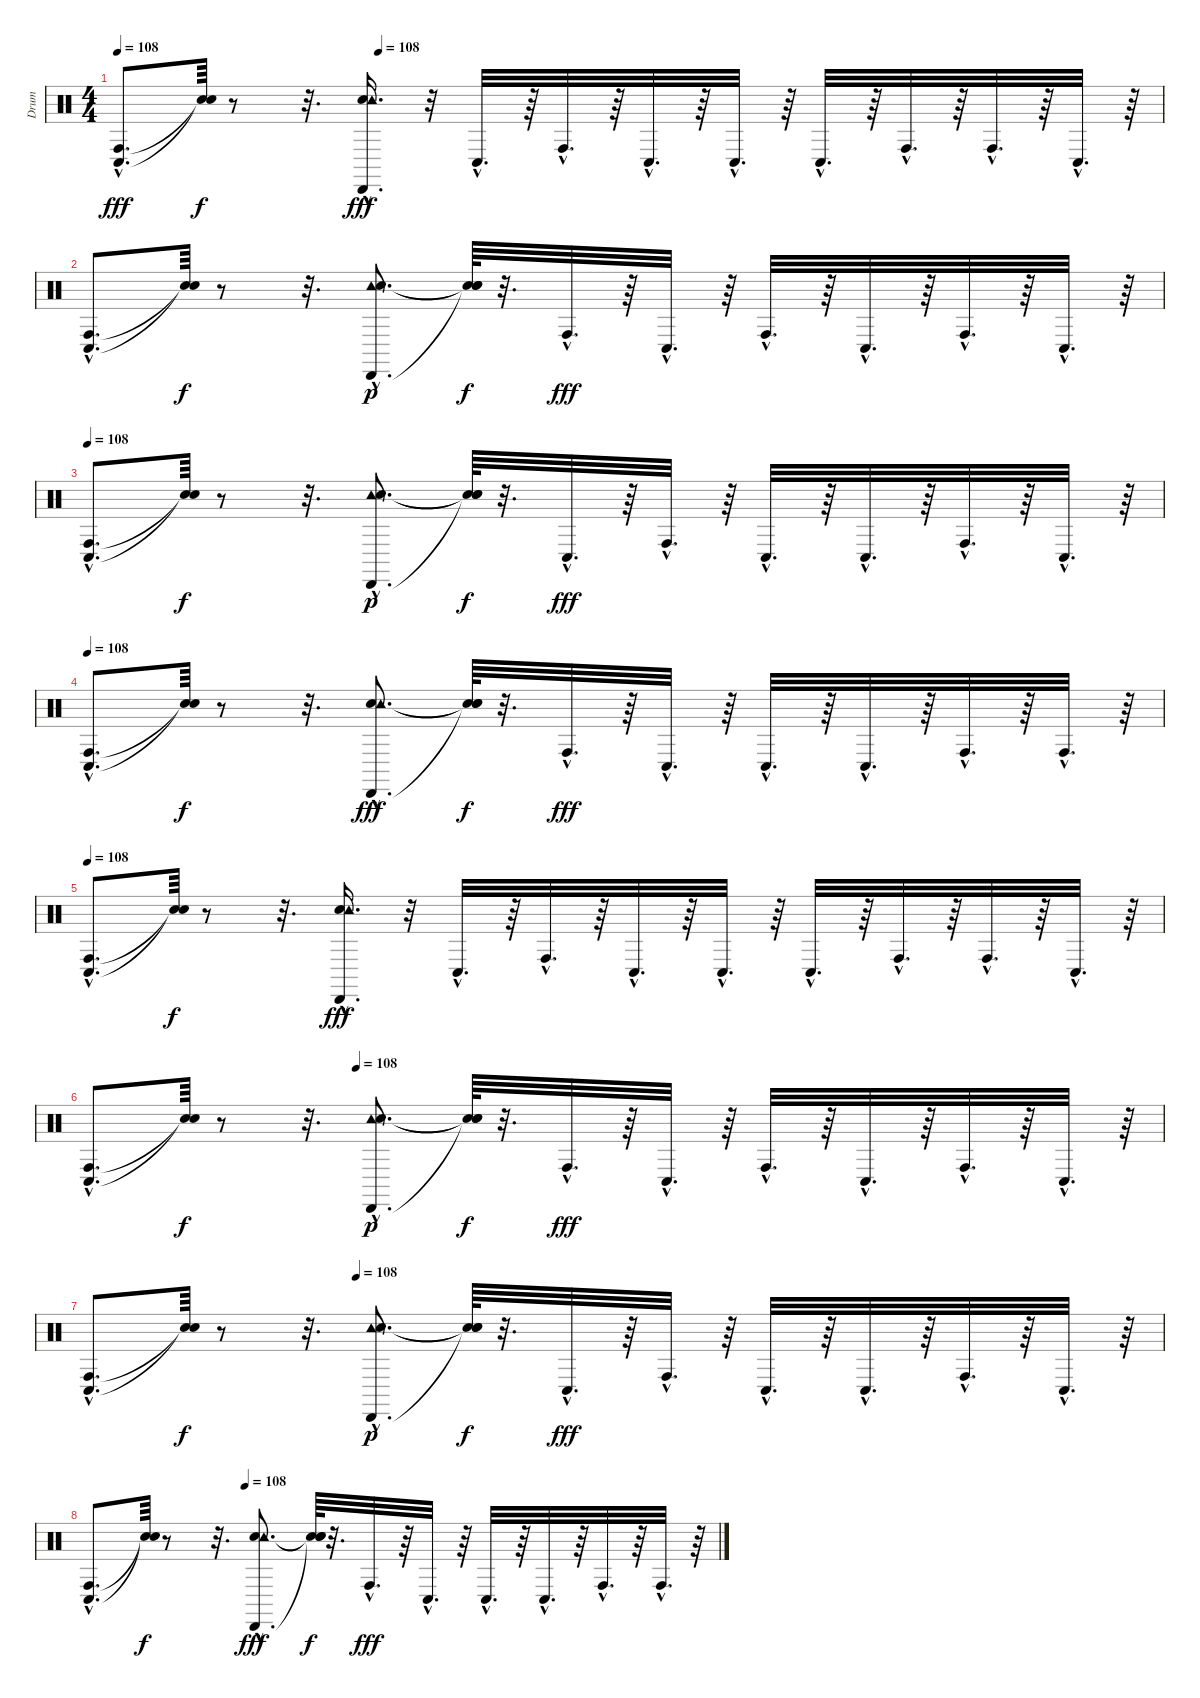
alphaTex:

\track ("Drum" "Drum") {instrument percussion}
\staff {score}
\articulation defaults
\ts (4 4)
\tempo 108
\tempo (108 0.25)
\clef neutral
\ks c
("Conga low (hit)"{hac} "Conga high (hit)"{hac}).8{d dy fff} ("Snare (hit)"{t} "Snare (hit)"{t}).64{dy f} r.8 r.32{d} ("Snare (hit) 2"{hac} "Tambourine (hit)"{hac} "Cabasa (hit)"{hac}).16{d dy fff} r.32 "Conga low (hit)"{hac}.32{d} r.64 "Conga high (hit)"{hac}.32{d} r.64 "Conga low (hit)"{hac}.32{d} r.64 "Conga low (hit)"{hac}.32{d} r.64 "Conga low (hit)"{hac}.32{d} r.64 "Conga high (hit)"{hac}.32{d} r.64 "Conga high (hit)"{hac}.32{d} r.64 "Conga low (hit)"{hac}.32{d} r.64 |
("Conga high (hit)"{hac} "Conga low (hit)"{hac}).8{d} ("Snare (hit)"{t} "Snare (hit)"{t}).64{dy f} r.8 r.32{d} ("Cabasa (hit)"{hac} "Tambourine (hit)"{hac} "Snare (hit) 2"{hac}).8{d dy p} ("Snare (hit)"{t} "Snare (hit)"{t} "Snare (hit)"{t}).64{dy f} r.32{d} "Conga high (hit)"{hac}.32{d dy fff} r.64 "Conga low (hit)"{hac}.32{d} r.64 "Conga high (hit)"{hac}.32{d} r.64 "Conga low (hit)"{hac}.32{d} r.64 "Conga high (hit)"{hac}.32{d} r.64 "Conga low (hit)"{hac}.32{d} r.64 |
\tempo 108
("Conga high (hit)"{hac} "Conga low (hit)"{hac}).8{d} ("Snare (hit)"{t} "Snare (hit)"{t}).64{dy f} r.8 r.32{d} ("Cabasa (hit)"{hac} "Tambourine (hit)"{hac} "Snare (hit) 2"{hac}).8{d dy p} ("Snare (hit)"{t} "Snare (hit)"{t} "Snare (hit)"{t}).64{dy f} r.32{d} "Conga low (hit)"{hac}.32{d dy fff} r.64 "Conga high (hit)"{hac}.32{d} r.64 "Conga low (hit)"{hac}.32{d} r.64 "Conga low (hit)"{hac}.32{d} r.64 "Conga high (hit)"{hac}.32{d} r.64 "Conga low (hit)"{hac}.32{d} r.64 |
\tempo 108
("Conga low (hit)"{hac} "Conga high (hit)"{hac}).8{d} ("Snare (hit)"{t} "Snare (hit)"{t}).64{dy f} r.8 r.32{d} ("Snare (hit) 2"{hac} "Tambourine (hit)"{hac} "Cabasa (hit)"{hac}).8{d dy fff} ("Snare (hit)"{t} "Snare (hit)"{t} "Snare (hit)"{t}).64{dy f} r.32{d} "Conga high (hit)"{hac}.32{d dy fff} r.64 "Conga low (hit)"{hac}.32{d} r.64 "Conga low (hit)"{hac}.32{d} r.64 "Conga low (hit)"{hac}.32{d} r.64 "Conga high (hit)"{hac}.32{d} r.64 "Conga high (hit)"{hac}.32{d} r.64 |
\tempo 108
("Conga low (hit)"{hac} "Conga high (hit)"{hac}).8{d} ("Snare (hit)"{t} "Snare (hit)"{t}).64{dy f} r.8 r.32{d} ("Snare (hit) 2"{hac} "Tambourine (hit)"{hac} "Cabasa (hit)"{hac}).16{d dy fff} r.32 "Conga low (hit)"{hac}.32{d} r.64 "Conga high (hit)"{hac}.32{d} r.64 "Conga low (hit)"{hac}.32{d} r.64 "Conga low (hit)"{hac}.32{d} r.64 "Conga low (hit)"{hac}.32{d} r.64 "Conga high (hit)"{hac}.32{d} r.64 "Conga high (hit)"{hac}.32{d} r.64 "Conga low (hit)"{hac}.32{d} r.64 |
\tempo (108 0.25)
("Conga high (hit)"{hac} "Conga low (hit)"{hac}).8{d} ("Snare (hit)"{t} "Snare (hit)"{t}).64{dy f} r.8 r.32{d} ("Cabasa (hit)"{hac} "Tambourine (hit)"{hac} "Snare (hit) 2"{hac}).8{d dy p} ("Snare (hit)"{t} "Snare (hit)"{t} "Snare (hit)"{t}).64{dy f} r.32{d} "Conga high (hit)"{hac}.32{d dy fff} r.64 "Conga low (hit)"{hac}.32{d} r.64 "Conga high (hit)"{hac}.32{d} r.64 "Conga low (hit)"{hac}.32{d} r.64 "Conga high (hit)"{hac}.32{d} r.64 "Conga low (hit)"{hac}.32{d} r.64 |
\tempo (108 0.25)
("Conga high (hit)"{hac} "Conga low (hit)"{hac}).8{d} ("Snare (hit)"{t} "Snare (hit)"{t}).64{dy f} r.8 r.32{d} ("Cabasa (hit)"{hac} "Tambourine (hit)"{hac} "Snare (hit) 2"{hac}).8{d dy p} ("Snare (hit)"{t} "Snare (hit)"{t} "Snare (hit)"{t}).64{dy f} r.32{d} "Conga low (hit)"{hac}.32{d dy fff} r.64 "Conga high (hit)"{hac}.32{d} r.64 "Conga low (hit)"{hac}.32{d} r.64 "Conga low (hit)"{hac}.32{d} r.64 "Conga high (hit)"{hac}.32{d} r.64 "Conga low (hit)"{hac}.32{d} r.64 |
\tempo (108 0.25)
("Conga low (hit)"{hac} "Conga high (hit)"{hac}).8{d} ("Snare (hit)"{t} "Snare (hit)"{t}).64{dy f} r.8 r.32{d} ("Snare (hit) 2"{hac} "Tambourine (hit)"{hac} "Cabasa (hit)"{hac}).8{d dy fff} ("Snare (hit)"{t} "Snare (hit)"{t} "Snare (hit)"{t}).64{dy f} r.32{d} "Conga high (hit)"{hac}.32{d dy fff} r.64 "Conga low (hit)"{hac}.32{d} r.64 "Conga low (hit)"{hac}.32{d} r.64 "Conga low (hit)"{hac}.32{d} r.64 "Conga high (hit)"{hac}.32{d} r.64 "Conga high (hit)"{hac}.32{d} r.64
